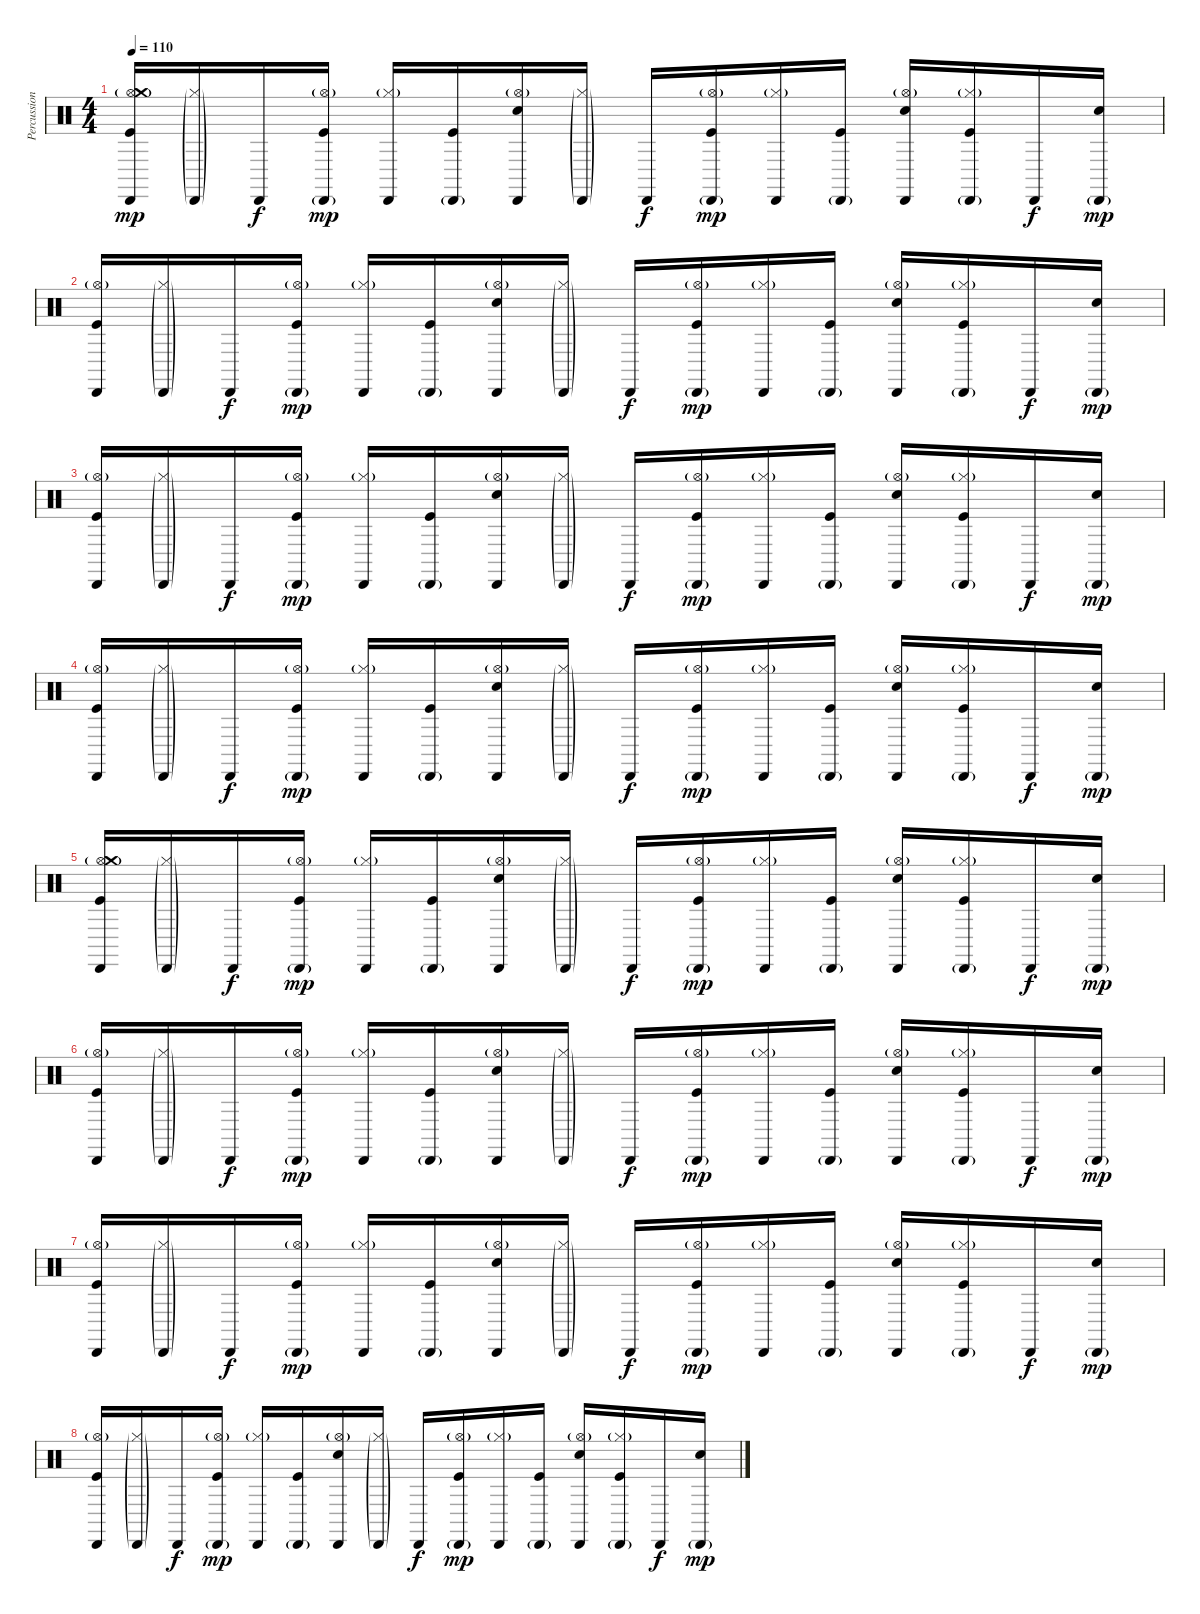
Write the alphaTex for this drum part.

\track ("Percussion" "Percussion") {instrument percussion}
\staff {score}
\articulation defaults
\ts (4 4)
\tempo 110
\clef neutral
\ks c
("Cabasa (hit)" "Hi-Hat (open)"{g} "Crash medium (hit)" "Kick (hit)").16{dy mp} ("Cabasa (hit)"{g} "Hi-Hat (closed)"{g}).16 "Cabasa (hit)".16{dy f} ("Cabasa (hit)"{g} "Hi-Hat (open)"{g} "Kick (hit)").16{dy mp} ("Cabasa (hit)" "Hi-Hat (closed)"{g}).16 ("Cabasa (hit)"{g} "Kick (hit)").16 ("Cabasa (hit)" "Hi-Hat (open)"{g} "Snare (hit) 2").16 ("Cabasa (hit)"{g} "Hi-Hat (closed)"{g}).16 "Cabasa (hit)".16{dy f} ("Cabasa (hit)"{g} "Hi-Hat (open)"{g} "Kick (hit)").16{dy mp} ("Cabasa (hit)" "Hi-Hat (closed)"{g}).16 ("Cabasa (hit)"{g} "Kick (hit)").16 ("Cabasa (hit)" "Hi-Hat (open)"{g} "Snare (hit) 2").16 ("Cabasa (hit)"{g} "Hi-Hat (closed)"{g} "Kick (hit)").16 "Cabasa (hit)".16{dy f} ("Cabasa (hit)"{g} "Snare (hit) 2").16{dy mp} |
("Cabasa (hit)" "Hi-Hat (open)"{g} "Kick (hit)").16 ("Cabasa (hit)"{g} "Hi-Hat (closed)"{g}).16 "Cabasa (hit)".16{dy f} ("Cabasa (hit)"{g} "Hi-Hat (open)"{g} "Kick (hit)").16{dy mp} ("Cabasa (hit)" "Hi-Hat (closed)"{g}).16 ("Cabasa (hit)"{g} "Kick (hit)").16 ("Cabasa (hit)" "Hi-Hat (open)"{g} "Snare (hit) 2").16 ("Cabasa (hit)"{g} "Hi-Hat (closed)"{g}).16 "Cabasa (hit)".16{dy f} ("Cabasa (hit)"{g} "Hi-Hat (open)"{g} "Kick (hit)").16{dy mp} ("Cabasa (hit)" "Hi-Hat (closed)"{g}).16 ("Cabasa (hit)"{g} "Kick (hit)").16 ("Cabasa (hit)" "Hi-Hat (open)"{g} "Snare (hit) 2").16 ("Cabasa (hit)"{g} "Hi-Hat (closed)"{g} "Kick (hit)").16 "Cabasa (hit)".16{dy f} ("Cabasa (hit)"{g} "Snare (hit) 2").16{dy mp} |
("Cabasa (hit)" "Hi-Hat (open)"{g} "Kick (hit)").16 ("Cabasa (hit)"{g} "Hi-Hat (closed)"{g}).16 "Cabasa (hit)".16{dy f} ("Cabasa (hit)"{g} "Hi-Hat (open)"{g} "Kick (hit)").16{dy mp} ("Cabasa (hit)" "Hi-Hat (closed)"{g}).16 ("Cabasa (hit)"{g} "Kick (hit)").16 ("Cabasa (hit)" "Hi-Hat (open)"{g} "Snare (hit) 2").16 ("Cabasa (hit)"{g} "Hi-Hat (closed)"{g}).16 "Cabasa (hit)".16{dy f} ("Cabasa (hit)"{g} "Hi-Hat (open)"{g} "Kick (hit)").16{dy mp} ("Cabasa (hit)" "Hi-Hat (closed)"{g}).16 ("Cabasa (hit)"{g} "Kick (hit)").16 ("Cabasa (hit)" "Hi-Hat (open)"{g} "Snare (hit) 2").16 ("Cabasa (hit)"{g} "Hi-Hat (closed)"{g} "Kick (hit)").16 "Cabasa (hit)".16{dy f} ("Cabasa (hit)"{g} "Snare (hit) 2").16{dy mp} |
("Cabasa (hit)" "Hi-Hat (open)"{g} "Kick (hit)").16 ("Cabasa (hit)"{g} "Hi-Hat (closed)"{g}).16 "Cabasa (hit)".16{dy f} ("Cabasa (hit)"{g} "Hi-Hat (open)"{g} "Kick (hit)").16{dy mp} ("Cabasa (hit)" "Hi-Hat (closed)"{g}).16 ("Cabasa (hit)"{g} "Kick (hit)").16 ("Cabasa (hit)" "Hi-Hat (open)"{g} "Snare (hit) 2").16 ("Cabasa (hit)"{g} "Hi-Hat (closed)"{g}).16 "Cabasa (hit)".16{dy f} ("Cabasa (hit)"{g} "Hi-Hat (open)"{g} "Kick (hit)").16{dy mp} ("Cabasa (hit)" "Hi-Hat (closed)"{g}).16 ("Cabasa (hit)"{g} "Kick (hit)").16 ("Cabasa (hit)" "Hi-Hat (open)"{g} "Snare (hit) 2").16 ("Cabasa (hit)"{g} "Hi-Hat (closed)"{g} "Kick (hit)").16 "Cabasa (hit)".16{dy f} ("Cabasa (hit)"{g} "Snare (hit) 2").16{dy mp} |
("Cabasa (hit)" "Hi-Hat (open)"{g} "Crash medium (hit)" "Kick (hit)").16 ("Cabasa (hit)"{g} "Hi-Hat (closed)"{g}).16 "Cabasa (hit)".16{dy f} ("Cabasa (hit)"{g} "Hi-Hat (open)"{g} "Kick (hit)").16{dy mp} ("Cabasa (hit)" "Hi-Hat (closed)"{g}).16 ("Cabasa (hit)"{g} "Kick (hit)").16 ("Cabasa (hit)" "Hi-Hat (open)"{g} "Snare (hit) 2").16 ("Cabasa (hit)"{g} "Hi-Hat (closed)"{g}).16 "Cabasa (hit)".16{dy f} ("Cabasa (hit)"{g} "Hi-Hat (open)"{g} "Kick (hit)").16{dy mp} ("Cabasa (hit)" "Hi-Hat (closed)"{g}).16 ("Cabasa (hit)"{g} "Kick (hit)").16 ("Cabasa (hit)" "Hi-Hat (open)"{g} "Snare (hit) 2").16 ("Cabasa (hit)"{g} "Hi-Hat (closed)"{g} "Kick (hit)").16 "Cabasa (hit)".16{dy f} ("Cabasa (hit)"{g} "Snare (hit) 2").16{dy mp} |
("Cabasa (hit)" "Hi-Hat (open)"{g} "Kick (hit)").16 ("Cabasa (hit)"{g} "Hi-Hat (closed)"{g}).16 "Cabasa (hit)".16{dy f} ("Cabasa (hit)"{g} "Hi-Hat (open)"{g} "Kick (hit)").16{dy mp} ("Cabasa (hit)" "Hi-Hat (closed)"{g}).16 ("Cabasa (hit)"{g} "Kick (hit)").16 ("Cabasa (hit)" "Hi-Hat (open)"{g} "Snare (hit) 2").16 ("Cabasa (hit)"{g} "Hi-Hat (closed)"{g}).16 "Cabasa (hit)".16{dy f} ("Cabasa (hit)"{g} "Hi-Hat (open)"{g} "Kick (hit)").16{dy mp} ("Cabasa (hit)" "Hi-Hat (closed)"{g}).16 ("Cabasa (hit)"{g} "Kick (hit)").16 ("Cabasa (hit)" "Hi-Hat (open)"{g} "Snare (hit) 2").16 ("Cabasa (hit)"{g} "Hi-Hat (closed)"{g} "Kick (hit)").16 "Cabasa (hit)".16{dy f} ("Cabasa (hit)"{g} "Snare (hit) 2").16{dy mp} |
("Cabasa (hit)" "Hi-Hat (open)"{g} "Kick (hit)").16 ("Cabasa (hit)"{g} "Hi-Hat (closed)"{g}).16 "Cabasa (hit)".16{dy f} ("Cabasa (hit)"{g} "Hi-Hat (open)"{g} "Kick (hit)").16{dy mp} ("Cabasa (hit)" "Hi-Hat (closed)"{g}).16 ("Cabasa (hit)"{g} "Kick (hit)").16 ("Cabasa (hit)" "Hi-Hat (open)"{g} "Snare (hit) 2").16 ("Cabasa (hit)"{g} "Hi-Hat (closed)"{g}).16 "Cabasa (hit)".16{dy f} ("Cabasa (hit)"{g} "Hi-Hat (open)"{g} "Kick (hit)").16{dy mp} ("Cabasa (hit)" "Hi-Hat (closed)"{g}).16 ("Cabasa (hit)"{g} "Kick (hit)").16 ("Cabasa (hit)" "Hi-Hat (open)"{g} "Snare (hit) 2").16 ("Cabasa (hit)"{g} "Hi-Hat (closed)"{g} "Kick (hit)").16 "Cabasa (hit)".16{dy f} ("Cabasa (hit)"{g} "Snare (hit) 2").16{dy mp} |
("Cabasa (hit)" "Hi-Hat (open)"{g} "Kick (hit)").16 ("Cabasa (hit)"{g} "Hi-Hat (closed)"{g}).16 "Cabasa (hit)".16{dy f} ("Cabasa (hit)"{g} "Hi-Hat (open)"{g} "Kick (hit)").16{dy mp} ("Cabasa (hit)" "Hi-Hat (closed)"{g}).16 ("Cabasa (hit)"{g} "Kick (hit)").16 ("Cabasa (hit)" "Hi-Hat (open)"{g} "Snare (hit) 2").16 ("Cabasa (hit)"{g} "Hi-Hat (closed)"{g}).16 "Cabasa (hit)".16{dy f} ("Cabasa (hit)"{g} "Hi-Hat (open)"{g} "Kick (hit)").16{dy mp} ("Cabasa (hit)" "Hi-Hat (closed)"{g}).16 ("Cabasa (hit)"{g} "Kick (hit)").16 ("Cabasa (hit)" "Hi-Hat (open)"{g} "Snare (hit) 2").16 ("Cabasa (hit)"{g} "Hi-Hat (closed)"{g} "Kick (hit)").16 "Cabasa (hit)".16{dy f} ("Cabasa (hit)"{g} "Snare (hit) 2").16{dy mp}
